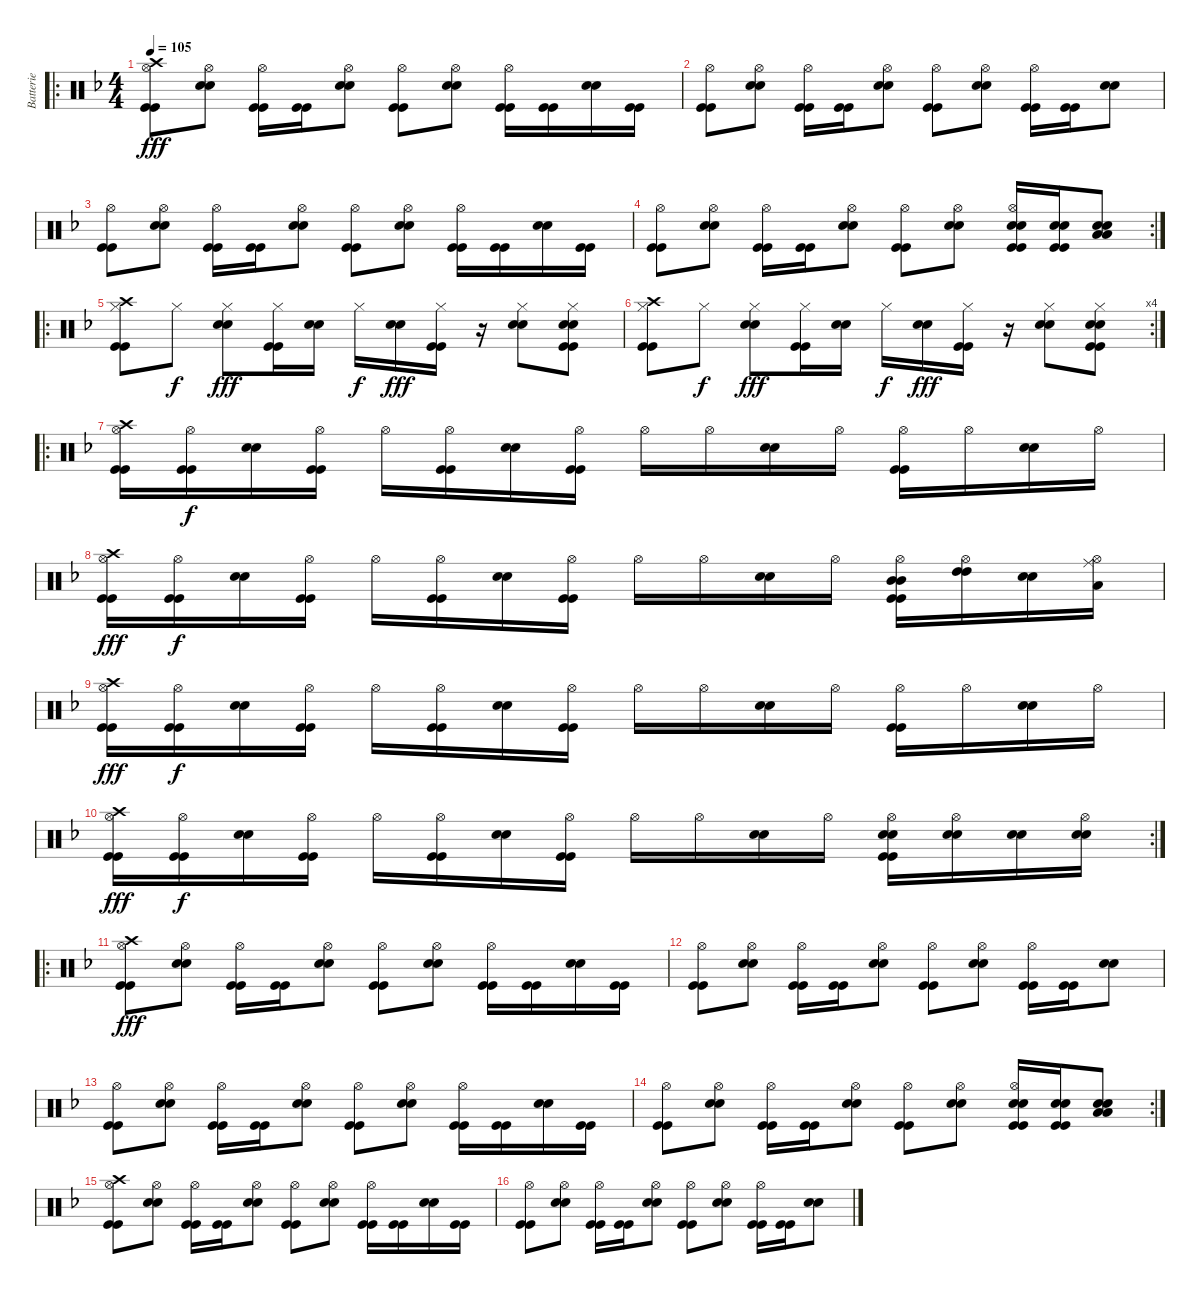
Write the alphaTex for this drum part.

\track ("Batterie" "Batterie") {instrument percussion}
\staff {score}
\articulation defaults
\ro
\ts (4 4)
\tempo 105
\clef neutral
\ks f
("Kick (hit)" "Kick (hit)" "Crash high (hit)" "Hi-Hat (open)").8{dy fff} ("Snare (hit) 2" "Snare (hit) 2" "Hi-Hat (open)").8 ("Kick (hit)" "Kick (hit)" "Hi-Hat (open)").16 ("Kick (hit)" "Kick (hit)").16 ("Snare (hit) 2" "Snare (hit) 2" "Hi-Hat (open)").8 ("Kick (hit)" "Kick (hit)" "Hi-Hat (open)").8 ("Snare (hit) 2" "Snare (hit) 2" "Hi-Hat (open)").8 ("Kick (hit)" "Kick (hit)" "Hi-Hat (open)").16 ("Kick (hit)" "Kick (hit)").16 ("Snare (hit) 2" "Snare (hit) 2").16 ("Kick (hit)" "Kick (hit)").16 |
("Kick (hit)" "Kick (hit)" "Hi-Hat (open)").8 ("Snare (hit) 2" "Snare (hit) 2" "Hi-Hat (open)").8 ("Kick (hit)" "Kick (hit)" "Hi-Hat (open)").16 ("Kick (hit)" "Kick (hit)").16 ("Snare (hit) 2" "Snare (hit) 2" "Hi-Hat (open)").8 ("Kick (hit)" "Kick (hit)" "Hi-Hat (open)").8 ("Snare (hit) 2" "Snare (hit) 2" "Hi-Hat (open)").8 ("Kick (hit)" "Kick (hit)" "Hi-Hat (open)").16 ("Kick (hit)" "Kick (hit)").16 ("Snare (hit) 2" "Snare (hit) 2").8 |
("Kick (hit)" "Kick (hit)" "Hi-Hat (open)").8 ("Snare (hit) 2" "Snare (hit) 2" "Hi-Hat (open)").8 ("Kick (hit)" "Kick (hit)" "Hi-Hat (open)").16 ("Kick (hit)" "Kick (hit)").16 ("Snare (hit) 2" "Snare (hit) 2" "Hi-Hat (open)").8 ("Kick (hit)" "Kick (hit)" "Hi-Hat (open)").8 ("Snare (hit) 2" "Snare (hit) 2" "Hi-Hat (open)").8 ("Kick (hit)" "Kick (hit)" "Hi-Hat (open)").16 ("Kick (hit)" "Kick (hit)").16 ("Snare (hit) 2" "Snare (hit) 2").16 ("Kick (hit)" "Kick (hit)").16 |
\rc 2
("Kick (hit)" "Kick (hit)" "Hi-Hat (open)").8 ("Snare (hit) 2" "Snare (hit) 2" "Hi-Hat (open)").8 ("Kick (hit)" "Kick (hit)" "Hi-Hat (open)").16 ("Kick (hit)" "Kick (hit)").16 ("Snare (hit) 2" "Snare (hit) 2" "Hi-Hat (open)").8 ("Kick (hit)" "Kick (hit)" "Hi-Hat (open)").8 ("Snare (hit) 2" "Snare (hit) 2" "Hi-Hat (open)").8 ("Kick (hit)" "Kick (hit)" "Snare (hit) 2" "Snare (hit) 2" "Hi-Hat (open)").16 ("Kick (hit)" "Kick (hit)" "Snare (hit) 2" "Snare (hit) 2").16 ("Low Floor Tom (hit)" "Low Floor Tom (hit)" "Snare (hit) 2" "Snare (hit) 2").8 |
\ro
("Kick (hit)" "Kick (hit)" "Crash high (hit)" "Hi-Hat (closed)").8 "Hi-Hat (closed)".8{dy f} ("Snare (hit) 2" "Snare (hit) 2" "Hi-Hat (closed)").8{dy fff} ("Kick (hit)" "Kick (hit)" "Hi-Hat (closed)").16 ("Snare (hit) 2" "Snare (hit) 2").16 "Hi-Hat (closed)".16{dy f} ("Snare (hit) 2" "Snare (hit) 2").16{dy fff} ("Kick (hit)" "Kick (hit)" "Hi-Hat (closed)").16 r.16 ("Snare (hit) 2" "Snare (hit) 2" "Hi-Hat (closed)").8 ("Kick (hit)" "Kick (hit)" "Snare (hit) 2" "Snare (hit) 2" "Hi-Hat (closed)").8 |
\rc 4
("Kick (hit)" "Kick (hit)" "Crash high (hit)" "Hi-Hat (closed)").8 "Hi-Hat (closed)".8{dy f} ("Snare (hit) 2" "Snare (hit) 2" "Hi-Hat (closed)").8{dy fff} ("Kick (hit)" "Kick (hit)" "Hi-Hat (closed)").16 ("Snare (hit) 2" "Snare (hit) 2").16 "Hi-Hat (closed)".16{dy f} ("Snare (hit) 2" "Snare (hit) 2").16{dy fff} ("Kick (hit)" "Kick (hit)" "Hi-Hat (closed)").16 r.16 ("Snare (hit) 2" "Snare (hit) 2" "Hi-Hat (closed)").8 ("Kick (hit)" "Kick (hit)" "Snare (hit) 2" "Snare (hit) 2" "Hi-Hat (closed)").8 |
\ro
("Kick (hit)" "Kick (hit)" "Crash high (hit)" "Hi-Hat (open)").16 ("Kick (hit)" "Kick (hit)" "Hi-Hat (open)").16{dy f} ("Snare (hit) 2" "Snare (hit) 2").16 ("Kick (hit)" "Kick (hit)" "Hi-Hat (open)").16 "Hi-Hat (open)".16 ("Kick (hit)" "Kick (hit)" "Hi-Hat (open)").16 ("Snare (hit) 2" "Snare (hit) 2").16 ("Kick (hit)" "Kick (hit)" "Hi-Hat (open)").16 "Hi-Hat (open)".16 "Hi-Hat (open)".16 ("Snare (hit) 2" "Snare (hit) 2").16 "Hi-Hat (open)".16 ("Kick (hit)" "Kick (hit)" "Hi-Hat (open)").16 "Hi-Hat (open)".16 ("Snare (hit) 2" "Snare (hit) 2").16 "Hi-Hat (open)".16 |
("Kick (hit)" "Kick (hit)" "Crash high (hit)" "Hi-Hat (open)").16{dy fff} ("Kick (hit)" "Kick (hit)" "Hi-Hat (open)").16{dy f} ("Snare (hit) 2" "Snare (hit) 2").16 ("Kick (hit)" "Kick (hit)" "Hi-Hat (open)").16 "Hi-Hat (open)".16 ("Kick (hit)" "Kick (hit)" "Hi-Hat (open)").16 ("Snare (hit) 2" "Snare (hit) 2").16 ("Kick (hit)" "Kick (hit)" "Hi-Hat (open)").16 "Hi-Hat (open)".16 "Hi-Hat (open)".16 ("Snare (hit) 2" "Snare (hit) 2").16 "Hi-Hat (open)".16 ("Kick (hit)" "Kick (hit)" "Mid Tom (hit)" "Mid Tom (hit)" "Hi-Hat (open)").16 ("High Tom (hit)" "High Tom (hit)" "Hi-Hat (open)").16 ("Snare (hit) 2" "Snare (hit) 2").16 ("Low Floor Tom (hit)" "Ride (middle)" "Hi-Hat (open)").16 |
("Kick (hit)" "Kick (hit)" "Crash high (hit)" "Hi-Hat (open)").16{dy fff} ("Kick (hit)" "Kick (hit)" "Hi-Hat (open)").16{dy f} ("Snare (hit) 2" "Snare (hit) 2").16 ("Kick (hit)" "Kick (hit)" "Hi-Hat (open)").16 "Hi-Hat (open)".16 ("Kick (hit)" "Kick (hit)" "Hi-Hat (open)").16 ("Snare (hit) 2" "Snare (hit) 2").16 ("Kick (hit)" "Kick (hit)" "Hi-Hat (open)").16 "Hi-Hat (open)".16 "Hi-Hat (open)".16 ("Snare (hit) 2" "Snare (hit) 2").16 "Hi-Hat (open)".16 ("Kick (hit)" "Kick (hit)" "Hi-Hat (open)").16 "Hi-Hat (open)".16 ("Snare (hit) 2" "Snare (hit) 2").16 "Hi-Hat (open)".16 |
\rc 2
("Kick (hit)" "Kick (hit)" "Crash high (hit)" "Hi-Hat (open)").16{dy fff} ("Kick (hit)" "Kick (hit)" "Hi-Hat (open)").16{dy f} ("Snare (hit) 2" "Snare (hit) 2").16 ("Kick (hit)" "Kick (hit)" "Hi-Hat (open)").16 "Hi-Hat (open)".16 ("Kick (hit)" "Kick (hit)" "Hi-Hat (open)").16 ("Snare (hit) 2" "Snare (hit) 2").16 ("Kick (hit)" "Kick (hit)" "Hi-Hat (open)").16 "Hi-Hat (open)".16 "Hi-Hat (open)".16 ("Snare (hit) 2" "Snare (hit) 2").16 "Hi-Hat (open)".16 ("Kick (hit)" "Kick (hit)" "Snare (hit) 2" "Snare (hit) 2" "Hi-Hat (open)").16 ("Snare (hit) 2" "Snare (hit) 2" "Hi-Hat (open)").16 ("Snare (hit) 2" "Snare (hit) 2").16 ("Snare (hit) 2" "Snare (hit) 2" "Hi-Hat (open)").16 |
\ro
("Kick (hit)" "Kick (hit)" "Crash high (hit)" "Hi-Hat (open)").8{dy fff} ("Snare (hit) 2" "Snare (hit) 2" "Hi-Hat (open)").8 ("Kick (hit)" "Kick (hit)" "Hi-Hat (open)").16 ("Kick (hit)" "Kick (hit)").16 ("Snare (hit) 2" "Snare (hit) 2" "Hi-Hat (open)").8 ("Kick (hit)" "Kick (hit)" "Hi-Hat (open)").8 ("Snare (hit) 2" "Snare (hit) 2" "Hi-Hat (open)").8 ("Kick (hit)" "Kick (hit)" "Hi-Hat (open)").16 ("Kick (hit)" "Kick (hit)").16 ("Snare (hit) 2" "Snare (hit) 2").16 ("Kick (hit)" "Kick (hit)").16 |
("Kick (hit)" "Kick (hit)" "Hi-Hat (open)").8 ("Snare (hit) 2" "Snare (hit) 2" "Hi-Hat (open)").8 ("Kick (hit)" "Kick (hit)" "Hi-Hat (open)").16 ("Kick (hit)" "Kick (hit)").16 ("Snare (hit) 2" "Snare (hit) 2" "Hi-Hat (open)").8 ("Kick (hit)" "Kick (hit)" "Hi-Hat (open)").8 ("Snare (hit) 2" "Snare (hit) 2" "Hi-Hat (open)").8 ("Kick (hit)" "Kick (hit)" "Hi-Hat (open)").16 ("Kick (hit)" "Kick (hit)").16 ("Snare (hit) 2" "Snare (hit) 2").8 |
("Kick (hit)" "Kick (hit)" "Hi-Hat (open)").8 ("Snare (hit) 2" "Snare (hit) 2" "Hi-Hat (open)").8 ("Kick (hit)" "Kick (hit)" "Hi-Hat (open)").16 ("Kick (hit)" "Kick (hit)").16 ("Snare (hit) 2" "Snare (hit) 2" "Hi-Hat (open)").8 ("Kick (hit)" "Kick (hit)" "Hi-Hat (open)").8 ("Snare (hit) 2" "Snare (hit) 2" "Hi-Hat (open)").8 ("Kick (hit)" "Kick (hit)" "Hi-Hat (open)").16 ("Kick (hit)" "Kick (hit)").16 ("Snare (hit) 2" "Snare (hit) 2").16 ("Kick (hit)" "Kick (hit)").16 |
\rc 2
("Kick (hit)" "Kick (hit)" "Hi-Hat (open)").8 ("Snare (hit) 2" "Snare (hit) 2" "Hi-Hat (open)").8 ("Kick (hit)" "Kick (hit)" "Hi-Hat (open)").16 ("Kick (hit)" "Kick (hit)").16 ("Snare (hit) 2" "Snare (hit) 2" "Hi-Hat (open)").8 ("Kick (hit)" "Kick (hit)" "Hi-Hat (open)").8 ("Snare (hit) 2" "Snare (hit) 2" "Hi-Hat (open)").8 ("Kick (hit)" "Kick (hit)" "Snare (hit) 2" "Snare (hit) 2" "Hi-Hat (open)").16 ("Kick (hit)" "Kick (hit)" "Snare (hit) 2" "Snare (hit) 2").16 ("Low Floor Tom (hit)" "Low Floor Tom (hit)" "Snare (hit) 2" "Snare (hit) 2").8 |
("Kick (hit)" "Kick (hit)" "Crash high (hit)" "Hi-Hat (open)").8 ("Snare (hit) 2" "Snare (hit) 2" "Hi-Hat (open)").8 ("Kick (hit)" "Kick (hit)" "Hi-Hat (open)").16 ("Kick (hit)" "Kick (hit)").16 ("Snare (hit) 2" "Snare (hit) 2" "Hi-Hat (open)").8 ("Kick (hit)" "Kick (hit)" "Hi-Hat (open)").8 ("Snare (hit) 2" "Snare (hit) 2" "Hi-Hat (open)").8 ("Kick (hit)" "Kick (hit)" "Hi-Hat (open)").16 ("Kick (hit)" "Kick (hit)").16 ("Snare (hit) 2" "Snare (hit) 2").16 ("Kick (hit)" "Kick (hit)").16 |
("Kick (hit)" "Kick (hit)" "Hi-Hat (open)").8 ("Snare (hit) 2" "Snare (hit) 2" "Hi-Hat (open)").8 ("Kick (hit)" "Kick (hit)" "Hi-Hat (open)").16 ("Kick (hit)" "Kick (hit)").16 ("Snare (hit) 2" "Snare (hit) 2" "Hi-Hat (open)").8 ("Kick (hit)" "Kick (hit)" "Hi-Hat (open)").8 ("Snare (hit) 2" "Snare (hit) 2" "Hi-Hat (open)").8 ("Kick (hit)" "Kick (hit)" "Hi-Hat (open)").16 ("Kick (hit)" "Kick (hit)").16 ("Snare (hit) 2" "Snare (hit) 2").8
